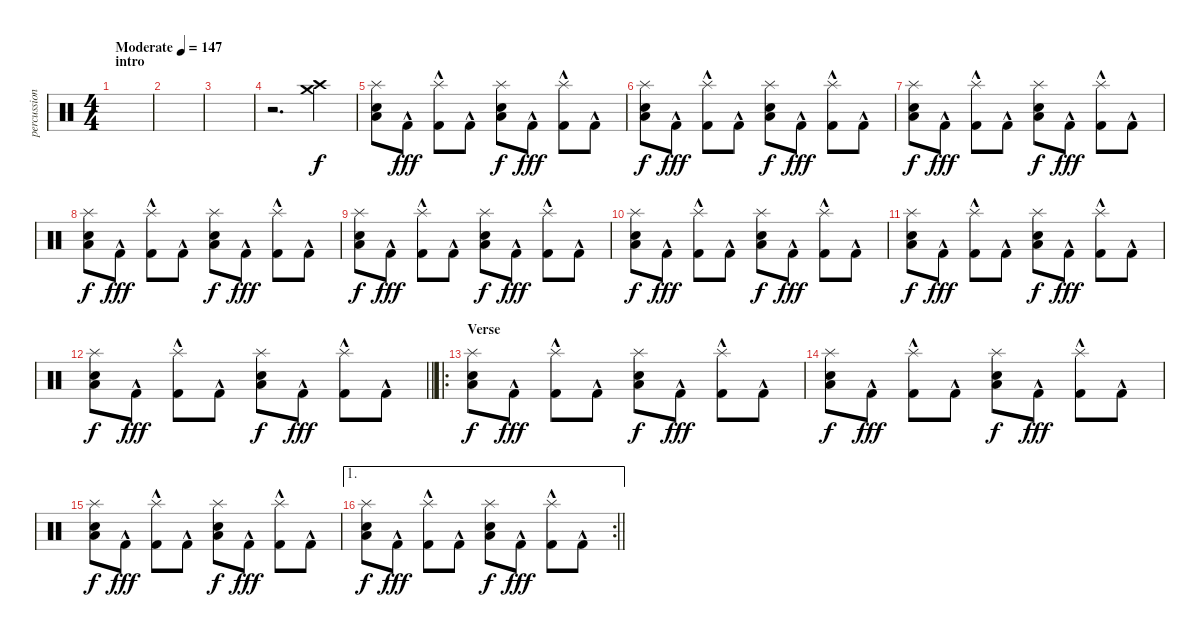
\track ("percussion" "percussion") {instrument percussion}
\staff {score}
\articulation defaults
\ts (4 4)
\section ("" "intro")
\tempo (147 "Moderate")
\clef neutral
\ks c
|
|
|
r.2{d} ("Crash medium (hit)" "Crash high (hit)").4 |
("Electric Snare (hit)" "Low Floor Tom (hit)" "Splash (hit)").8 "Kick (hit) 2"{hac}.8{dy fff} ("Kick (hit) 2"{hac} "Splash (hit)").8 "Kick (hit) 2"{hac}.8 ("Electric Snare (hit)" "Low Floor Tom (hit)" "Splash (hit)").8{dy f} "Kick (hit) 2"{hac}.8{dy fff} ("Kick (hit) 2"{hac} "Splash (hit)").8 "Kick (hit) 2"{hac}.8 |
("Electric Snare (hit)" "Low Floor Tom (hit)" "Splash (hit)").8{dy f} "Kick (hit) 2"{hac}.8{dy fff} ("Kick (hit) 2"{hac} "Splash (hit)").8 "Kick (hit) 2"{hac}.8 ("Electric Snare (hit)" "Low Floor Tom (hit)" "Splash (hit)").8{dy f} "Kick (hit) 2"{hac}.8{dy fff} ("Kick (hit) 2"{hac} "Splash (hit)").8 "Kick (hit) 2"{hac}.8 |
("Electric Snare (hit)" "Low Floor Tom (hit)" "Splash (hit)").8{dy f} "Kick (hit) 2"{hac}.8{dy fff} ("Kick (hit) 2"{hac} "Splash (hit)").8 "Kick (hit) 2"{hac}.8 ("Electric Snare (hit)" "Low Floor Tom (hit)" "Splash (hit)").8{dy f} "Kick (hit) 2"{hac}.8{dy fff} ("Kick (hit) 2"{hac} "Splash (hit)").8 "Kick (hit) 2"{hac}.8 |
("Electric Snare (hit)" "Low Floor Tom (hit)" "Splash (hit)").8{dy f} "Kick (hit) 2"{hac}.8{dy fff} ("Kick (hit) 2"{hac} "Splash (hit)").8 "Kick (hit) 2"{hac}.8 ("Electric Snare (hit)" "Low Floor Tom (hit)" "Splash (hit)").8{dy f} "Kick (hit) 2"{hac}.8{dy fff} ("Kick (hit) 2"{hac} "Splash (hit)").8 "Kick (hit) 2"{hac}.8 |
("Electric Snare (hit)" "Low Floor Tom (hit)" "Splash (hit)").8{dy f} "Kick (hit) 2"{hac}.8{dy fff} ("Kick (hit) 2"{hac} "Splash (hit)").8 "Kick (hit) 2"{hac}.8 ("Electric Snare (hit)" "Low Floor Tom (hit)" "Splash (hit)").8{dy f} "Kick (hit) 2"{hac}.8{dy fff} ("Kick (hit) 2"{hac} "Splash (hit)").8 "Kick (hit) 2"{hac}.8 |
("Electric Snare (hit)" "Low Floor Tom (hit)" "Splash (hit)").8{dy f} "Kick (hit) 2"{hac}.8{dy fff} ("Kick (hit) 2"{hac} "Splash (hit)").8 "Kick (hit) 2"{hac}.8 ("Electric Snare (hit)" "Low Floor Tom (hit)" "Splash (hit)").8{dy f} "Kick (hit) 2"{hac}.8{dy fff} ("Kick (hit) 2"{hac} "Splash (hit)").8 "Kick (hit) 2"{hac}.8 |
("Electric Snare (hit)" "Low Floor Tom (hit)" "Splash (hit)").8{dy f} "Kick (hit) 2"{hac}.8{dy fff} ("Kick (hit) 2"{hac} "Splash (hit)").8 "Kick (hit) 2"{hac}.8 ("Electric Snare (hit)" "Low Floor Tom (hit)" "Splash (hit)").8{dy f} "Kick (hit) 2"{hac}.8{dy fff} ("Kick (hit) 2"{hac} "Splash (hit)").8 "Kick (hit) 2"{hac}.8 |
\barLineRight lightlight
("Electric Snare (hit)" "Low Floor Tom (hit)" "Splash (hit)").8{dy f} "Kick (hit) 2"{hac}.8{dy fff} ("Kick (hit) 2"{hac} "Splash (hit)").8 "Kick (hit) 2"{hac}.8 ("Electric Snare (hit)" "Low Floor Tom (hit)" "Splash (hit)").8{dy f} "Kick (hit) 2"{hac}.8{dy fff} ("Kick (hit) 2"{hac} "Splash (hit)").8 "Kick (hit) 2"{hac}.8 |
\ro
\section ("" "Verse")
("Electric Snare (hit)" "Low Floor Tom (hit)" "Splash (hit)").8{dy f} "Kick (hit) 2"{hac}.8{dy fff} ("Kick (hit) 2"{hac} "Splash (hit)").8 "Kick (hit) 2"{hac}.8 ("Electric Snare (hit)" "Low Floor Tom (hit)" "Splash (hit)").8{dy f} "Kick (hit) 2"{hac}.8{dy fff} ("Kick (hit) 2"{hac} "Splash (hit)").8 "Kick (hit) 2"{hac}.8 |
("Electric Snare (hit)" "Low Floor Tom (hit)" "Splash (hit)").8{dy f} "Kick (hit) 2"{hac}.8{dy fff} ("Kick (hit) 2"{hac} "Splash (hit)").8 "Kick (hit) 2"{hac}.8 ("Electric Snare (hit)" "Low Floor Tom (hit)" "Splash (hit)").8{dy f} "Kick (hit) 2"{hac}.8{dy fff} ("Kick (hit) 2"{hac} "Splash (hit)").8 "Kick (hit) 2"{hac}.8 |
("Electric Snare (hit)" "Low Floor Tom (hit)" "Splash (hit)").8{dy f} "Kick (hit) 2"{hac}.8{dy fff} ("Kick (hit) 2"{hac} "Splash (hit)").8 "Kick (hit) 2"{hac}.8 ("Electric Snare (hit)" "Low Floor Tom (hit)" "Splash (hit)").8{dy f} "Kick (hit) 2"{hac}.8{dy fff} ("Kick (hit) 2"{hac} "Splash (hit)").8 "Kick (hit) 2"{hac}.8 |
\ae 1
\rc 2
\barLineRight lightlight
("Electric Snare (hit)" "Low Floor Tom (hit)" "Splash (hit)").8{dy f} "Kick (hit) 2"{hac}.8{dy fff} ("Kick (hit) 2"{hac} "Splash (hit)").8 "Kick (hit) 2"{hac}.8 ("Electric Snare (hit)" "Low Floor Tom (hit)" "Splash (hit)").8{dy f} "Kick (hit) 2"{hac}.8{dy fff} ("Kick (hit) 2"{hac} "Splash (hit)").8 "Kick (hit) 2"{hac}.8
